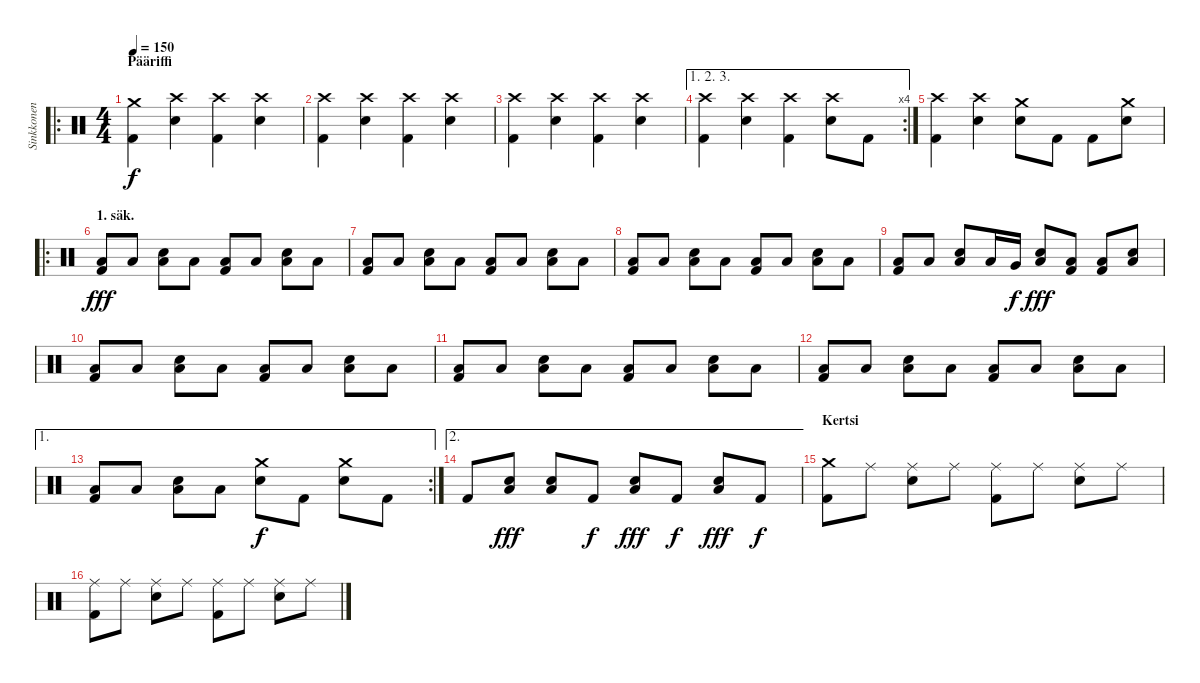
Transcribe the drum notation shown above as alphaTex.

\track ("Sinkkonen" "Sinkkonen") {instrument percussion}
\staff {score}
\articulation defaults
\ro
\ts (4 4)
\section ("" "Pääriffi")
\tempo 150
\clef neutral
\ks c
("Kick (hit) 2" "Crash medium (hit)").4{dy f} ("Crash high (hit)" "Snare (hit) 2").4 ("Kick (hit) 2" "Crash high (hit)").4 ("Crash high (hit)" "Snare (hit) 2").4 |
("Kick (hit) 2" "Crash high (hit)").4 ("Crash high (hit)" "Snare (hit) 2").4 ("Kick (hit) 2" "Crash high (hit)").4 ("Crash high (hit)" "Snare (hit) 2").4 |
("Kick (hit) 2" "Crash high (hit)").4 ("Crash high (hit)" "Snare (hit) 2").4 ("Kick (hit) 2" "Crash high (hit)").4 ("Crash high (hit)" "Snare (hit) 2").4 |
\ae (1 2 3)
\rc 4
("Kick (hit) 2" "Crash high (hit)").4 ("Crash high (hit)" "Snare (hit) 2").4 ("Kick (hit) 2" "Crash high (hit)").4 ("Crash high (hit)" "Snare (hit) 2").8 "Kick (hit) 2".8 |
("Kick (hit) 2" "Crash high (hit)").4 ("Crash high (hit)" "Snare (hit) 2").4 ("Crash medium (hit)" "Snare (hit) 2").8 "Kick (hit) 2".8 "Kick (hit) 2".8 ("Crash medium (hit)" "Snare (hit) 2").8 |
\ro
\section ("" "1. säk.")
("Kick (hit) 2" "Low Floor Tom (hit)").8{dy fff} "Low Floor Tom (hit)".8 ("Low Floor Tom (hit)" "Snare (hit) 2").8 "Low Floor Tom (hit)".8 ("Kick (hit) 2" "Low Floor Tom (hit)").8 "Low Floor Tom (hit)".8 ("Low Floor Tom (hit)" "Snare (hit) 2").8 "Low Floor Tom (hit)".8 |
("Kick (hit) 2" "Low Floor Tom (hit)").8 "Low Floor Tom (hit)".8 ("Low Floor Tom (hit)" "Snare (hit) 2").8 "Low Floor Tom (hit)".8 ("Kick (hit) 2" "Low Floor Tom (hit)").8 "Low Floor Tom (hit)".8 ("Low Floor Tom (hit)" "Snare (hit) 2").8 "Low Floor Tom (hit)".8 |
("Kick (hit) 2" "Low Floor Tom (hit)").8 "Low Floor Tom (hit)".8 ("Low Floor Tom (hit)" "Snare (hit) 2").8 "Low Floor Tom (hit)".8 ("Kick (hit) 2" "Low Floor Tom (hit)").8 "Low Floor Tom (hit)".8 ("Low Floor Tom (hit)" "Snare (hit) 2").8 "Low Floor Tom (hit)".8 |
("Kick (hit) 2" "Low Floor Tom (hit)").8 "Low Floor Tom (hit)".8 ("Low Floor Tom (hit)" "Snare (hit) 2").8 "Low Tom (hit)".16 "Very Low Tom (hit)".16{dy f} ("Low Floor Tom (hit)" "Snare (hit) 2").8{dy fff} ("Kick (hit) 2" "Low Floor Tom (hit)").8 ("Kick (hit) 2" "Low Floor Tom (hit)").8 ("Low Floor Tom (hit)" "Snare (hit) 2").8 |
("Kick (hit) 2" "Low Floor Tom (hit)").8 "Low Floor Tom (hit)".8 ("Low Floor Tom (hit)" "Snare (hit) 2").8 "Low Floor Tom (hit)".8 ("Kick (hit) 2" "Low Floor Tom (hit)").8 "Low Floor Tom (hit)".8 ("Low Floor Tom (hit)" "Snare (hit) 2").8 "Low Floor Tom (hit)".8 |
("Kick (hit) 2" "Low Floor Tom (hit)").8 "Low Floor Tom (hit)".8 ("Low Floor Tom (hit)" "Snare (hit) 2").8 "Low Floor Tom (hit)".8 ("Kick (hit) 2" "Low Floor Tom (hit)").8 "Low Floor Tom (hit)".8 ("Low Floor Tom (hit)" "Snare (hit) 2").8 "Low Floor Tom (hit)".8 |
("Kick (hit) 2" "Low Floor Tom (hit)").8 "Low Floor Tom (hit)".8 ("Low Floor Tom (hit)" "Snare (hit) 2").8 "Low Floor Tom (hit)".8 ("Kick (hit) 2" "Low Floor Tom (hit)").8 "Low Floor Tom (hit)".8 ("Low Floor Tom (hit)" "Snare (hit) 2").8 "Low Floor Tom (hit)".8 |
\ae 1
\rc 2
("Kick (hit) 2" "Low Floor Tom (hit)").8 "Low Floor Tom (hit)".8 ("Low Floor Tom (hit)" "Snare (hit) 2").8 "Low Floor Tom (hit)".8 ("Crash medium (hit)" "Snare (hit) 2").8{dy f} "Kick (hit) 2".8 ("Crash medium (hit)" "Snare (hit) 2").8 "Kick (hit) 2".8 |
\ae 2 "Kick (hit) 2".8
("Low Floor Tom (hit)" "Snare (hit) 2").8{dy fff} ("Low Floor Tom (hit)" "Snare (hit) 2").8 "Kick (hit) 2".8{dy f} ("Low Floor Tom (hit)" "Snare (hit) 2").8{dy fff} "Kick (hit) 2".8{dy f} ("Low Floor Tom (hit)" "Snare (hit) 2").8{dy fff} "Kick (hit) 2".8{dy f} |
\section ("" "Kertsi")
("Kick (hit) 2" "Crash medium (hit)").8 "Ride (middle)".8 ("Ride (middle)" "Snare (hit) 2").8 "Ride (middle)".8 ("Kick (hit) 2" "Ride (middle)").8 "Ride (middle)".8 ("Ride (middle)" "Snare (hit) 2").8 "Ride (middle)".8 |
("Kick (hit) 2" "Ride (middle)").8 "Ride (middle)".8 ("Ride (middle)" "Snare (hit) 2").8 "Ride (middle)".8 ("Kick (hit) 2" "Ride (middle)").8 "Ride (middle)".8 ("Ride (middle)" "Snare (hit) 2").8 "Ride (middle)".8
